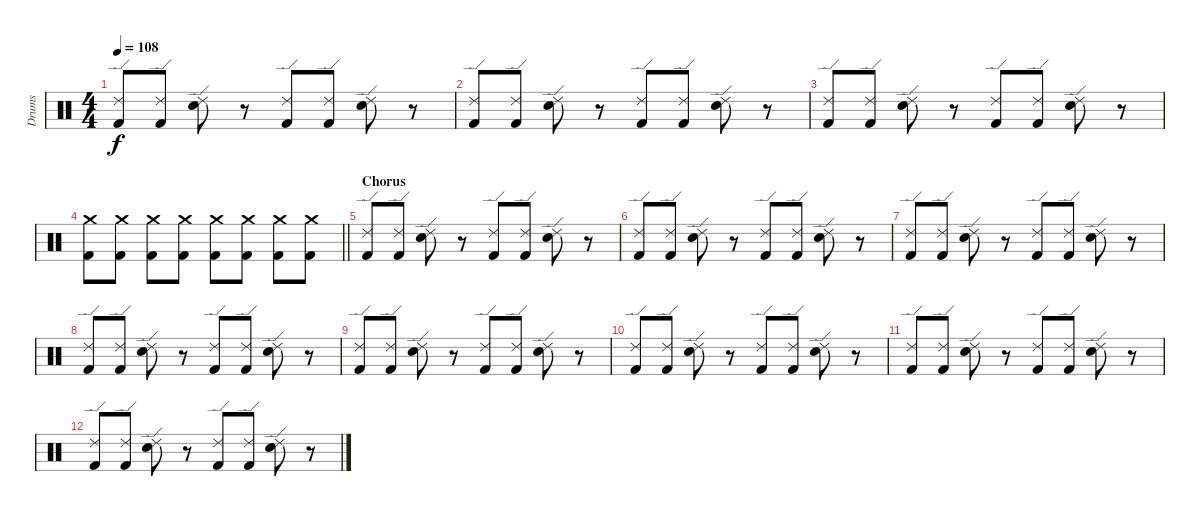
\track ("Drums" "Drums") {instrument percussion}
\staff {score}
\articulation defaults
\ts (4 4)
\tempo 108
\clef neutral
\ks c
("Ride (edge) 2" "Kick (hit) 2").8{dy f} ("Ride (edge) 2" "Kick (hit) 2").8 ("Ride (edge) 2" "Snare (hit) 2").8 r.8 ("Ride (edge) 2" "Kick (hit) 2").8 ("Ride (edge) 2" "Kick (hit) 2").8 ("Ride (edge) 2" "Snare (hit) 2").8 r.8 |
("Ride (edge) 2" "Kick (hit) 2").8 ("Ride (edge) 2" "Kick (hit) 2").8 ("Ride (edge) 2" "Snare (hit) 2").8 r.8 ("Ride (edge) 2" "Kick (hit) 2").8 ("Ride (edge) 2" "Kick (hit) 2").8 ("Ride (edge) 2" "Snare (hit) 2").8 r.8 |
("Ride (edge) 2" "Kick (hit) 2").8 ("Ride (edge) 2" "Kick (hit) 2").8 ("Ride (edge) 2" "Snare (hit) 2").8 r.8 ("Ride (edge) 2" "Kick (hit) 2").8 ("Ride (edge) 2" "Kick (hit) 2").8 ("Ride (edge) 2" "Snare (hit) 2").8 r.8 |
\barLineRight lightlight
("Crash medium (hit)" "Kick (hit) 2").8 ("Crash medium (hit)" "Kick (hit) 2").8 ("Crash medium (hit)" "Kick (hit) 2").8 ("Crash medium (hit)" "Kick (hit) 2").8 ("Crash medium (hit)" "Kick (hit) 2").8 ("Crash medium (hit)" "Kick (hit) 2").8 ("Crash medium (hit)" "Kick (hit) 2").8 ("Crash medium (hit)" "Kick (hit) 2").8 |
\section ("" "Chorus")
("Ride (edge) 2" "Kick (hit) 2").8 ("Ride (edge) 2" "Kick (hit) 2").8 ("Ride (edge) 2" "Snare (hit) 2").8 r.8 ("Ride (edge) 2" "Kick (hit) 2").8 ("Ride (edge) 2" "Kick (hit) 2").8 ("Ride (edge) 2" "Snare (hit) 2").8 r.8 |
("Ride (edge) 2" "Kick (hit) 2").8 ("Ride (edge) 2" "Kick (hit) 2").8 ("Ride (edge) 2" "Snare (hit) 2").8 r.8 ("Ride (edge) 2" "Kick (hit) 2").8 ("Ride (edge) 2" "Kick (hit) 2").8 ("Ride (edge) 2" "Snare (hit) 2").8 r.8 |
("Ride (edge) 2" "Kick (hit) 2").8 ("Ride (edge) 2" "Kick (hit) 2").8 ("Ride (edge) 2" "Snare (hit) 2").8 r.8 ("Ride (edge) 2" "Kick (hit) 2").8 ("Ride (edge) 2" "Kick (hit) 2").8 ("Ride (edge) 2" "Snare (hit) 2").8 r.8 |
("Ride (edge) 2" "Kick (hit) 2").8 ("Ride (edge) 2" "Kick (hit) 2").8 ("Ride (edge) 2" "Snare (hit) 2").8 r.8 ("Ride (edge) 2" "Kick (hit) 2").8 ("Ride (edge) 2" "Kick (hit) 2").8 ("Ride (edge) 2" "Snare (hit) 2").8 r.8 |
("Ride (edge) 2" "Kick (hit) 2").8 ("Ride (edge) 2" "Kick (hit) 2").8 ("Ride (edge) 2" "Snare (hit) 2").8 r.8 ("Ride (edge) 2" "Kick (hit) 2").8 ("Ride (edge) 2" "Kick (hit) 2").8 ("Ride (edge) 2" "Snare (hit) 2").8 r.8 |
("Ride (edge) 2" "Kick (hit) 2").8 ("Ride (edge) 2" "Kick (hit) 2").8 ("Ride (edge) 2" "Snare (hit) 2").8 r.8 ("Ride (edge) 2" "Kick (hit) 2").8 ("Ride (edge) 2" "Kick (hit) 2").8 ("Ride (edge) 2" "Snare (hit) 2").8 r.8 |
("Ride (edge) 2" "Kick (hit) 2").8 ("Ride (edge) 2" "Kick (hit) 2").8 ("Ride (edge) 2" "Snare (hit) 2").8 r.8 ("Ride (edge) 2" "Kick (hit) 2").8 ("Ride (edge) 2" "Kick (hit) 2").8 ("Ride (edge) 2" "Snare (hit) 2").8 r.8 |
("Ride (edge) 2" "Kick (hit) 2").8 ("Ride (edge) 2" "Kick (hit) 2").8 ("Ride (edge) 2" "Snare (hit) 2").8 r.8 ("Ride (edge) 2" "Kick (hit) 2").8 ("Ride (edge) 2" "Kick (hit) 2").8 ("Ride (edge) 2" "Snare (hit) 2").8 r.8
